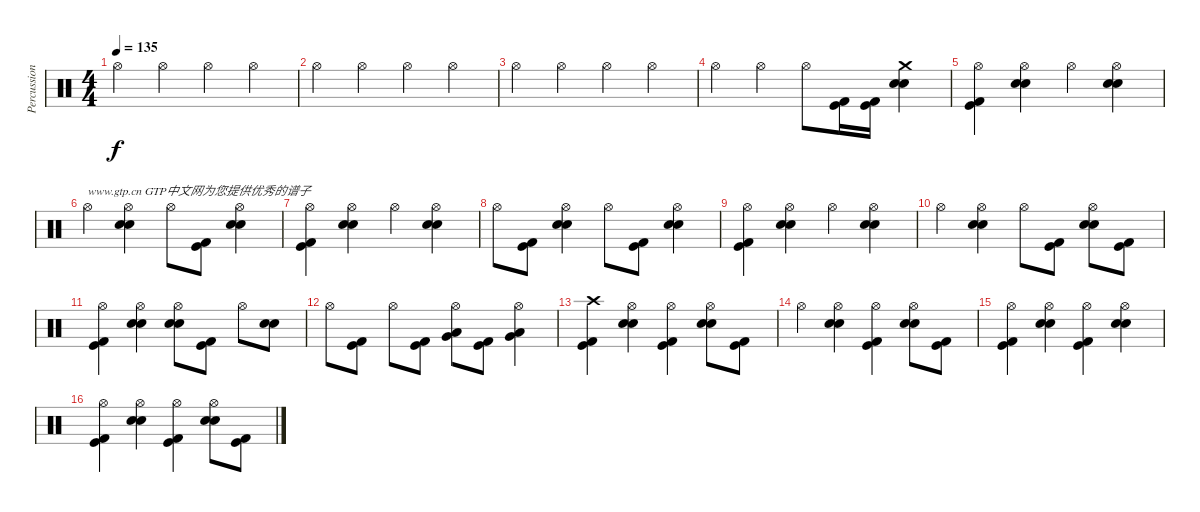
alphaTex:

\track ("Percussion" "Percussion") {instrument percussion}
\staff {score}
\articulation defaults
\ts (4 4)
\tempo 135
\clef neutral
\ks c "Hi-Hat (open)".4{dy f} "Hi-Hat (open)".4 "Hi-Hat (open)".4 "Hi-Hat (open)".4
|
"Hi-Hat (open)".4 "Hi-Hat (open)".4 "Hi-Hat (open)".4 "Hi-Hat (open)".4 |
"Hi-Hat (open)".4 "Hi-Hat (open)".4 "Hi-Hat (open)".4 "Hi-Hat (open)".4 |
"Hi-Hat (open)".4 "Hi-Hat (open)".4 "Hi-Hat (open)".8 ("Kick (hit)" "Kick (hit) 2").16 ("Kick (hit)" "Kick (hit) 2").16 ("Crash medium (hit)" "Electric Snare (hit)" "Metronome (bell)").4 |
("Hi-Hat (open)" "Kick (hit)" "Kick (hit) 2").4 ("Hi-Hat (open)" "Electric Snare (hit)" "Metronome (bell)").4 "Hi-Hat (open)".4 ("Hi-Hat (open)" "Electric Snare (hit)" "Metronome (bell)").4 |
"Hi-Hat (open)".4{txt "www.gtp.cn GTP中文网为您提供优秀的谱子"} ("Hi-Hat (open)" "Electric Snare (hit)" "Metronome (bell)").4 "Hi-Hat (open)".8 ("Kick (hit)" "Kick (hit) 2").8 ("Hi-Hat (open)" "Electric Snare (hit)" "Metronome (bell)").4 |
("Hi-Hat (open)" "Kick (hit)" "Kick (hit) 2").4 ("Hi-Hat (open)" "Electric Snare (hit)" "Metronome (bell)").4 "Hi-Hat (open)".4 ("Hi-Hat (open)" "Electric Snare (hit)" "Metronome (bell)").4 |
"Hi-Hat (open)".8 ("Kick (hit)" "Kick (hit) 2").8 ("Hi-Hat (open)" "Electric Snare (hit)" "Metronome (bell)").4 "Hi-Hat (open)".8 ("Kick (hit)" "Kick (hit) 2").8 ("Hi-Hat (open)" "Electric Snare (hit)" "Metronome (bell)").4 |
("Hi-Hat (open)" "Kick (hit)" "Kick (hit) 2").4 ("Hi-Hat (open)" "Electric Snare (hit)" "Metronome (bell)").4 "Hi-Hat (open)".4 ("Hi-Hat (open)" "Electric Snare (hit)" "Metronome (bell)").4 |
"Hi-Hat (open)".4 ("Hi-Hat (open)" "Electric Snare (hit)" "Metronome (bell)").4 "Hi-Hat (open)".8 ("Kick (hit)" "Kick (hit) 2").8 ("Hi-Hat (open)" "Electric Snare (hit)" "Metronome (bell)").8 ("Kick (hit)" "Kick (hit) 2").8 |
("Hi-Hat (open)" "Kick (hit)" "Kick (hit) 2").4 ("Hi-Hat (open)" "Electric Snare (hit)" "Metronome (bell)").4 ("Hi-Hat (open)" "Electric Snare (hit)" "Metronome (bell)").8 ("Kick (hit)" "Kick (hit) 2").8 "Hi-Hat (open)".8 ("Electric Snare (hit)" "Metronome (bell)").8 |
"Hi-Hat (open)".8 ("Kick (hit)" "Kick (hit) 2").8 "Hi-Hat (open)".8 ("Kick (hit)" "Kick (hit) 2").8 ("Hi-Hat (open)" "Low Tom (hit)" "Very Low Tom (hit)").8 ("Kick (hit)" "Kick (hit) 2").8 ("Hi-Hat (open)" "Very Low Tom (hit)" "Low Floor Tom (hit)").4 |
("Crash high (hit)" "Kick (hit)" "Kick (hit) 2").4 ("Hi-Hat (open)" "Electric Snare (hit)" "Metronome (bell)").4 ("Hi-Hat (open)" "Kick (hit)" "Kick (hit) 2").4 ("Hi-Hat (open)" "Electric Snare (hit)" "Metronome (bell)").8 ("Kick (hit)" "Kick (hit) 2").8 |
"Hi-Hat (open)".4 ("Hi-Hat (open)" "Electric Snare (hit)" "Metronome (bell)").4 ("Hi-Hat (open)" "Kick (hit)" "Kick (hit) 2").4 ("Hi-Hat (open)" "Electric Snare (hit)" "Metronome (bell)").8 ("Kick (hit)" "Kick (hit) 2").8 |
("Hi-Hat (open)" "Kick (hit)" "Kick (hit) 2").4 ("Hi-Hat (open)" "Electric Snare (hit)" "Metronome (bell)").4 ("Hi-Hat (open)" "Kick (hit)" "Kick (hit) 2").4 ("Hi-Hat (open)" "Electric Snare (hit)" "Metronome (bell)").4 |
("Hi-Hat (open)" "Kick (hit)" "Kick (hit) 2").4 ("Hi-Hat (open)" "Electric Snare (hit)" "Metronome (bell)").4 ("Hi-Hat (open)" "Kick (hit)" "Kick (hit) 2").4 ("Hi-Hat (open)" "Electric Snare (hit)" "Metronome (bell)").8 ("Kick (hit)" "Kick (hit) 2").8
